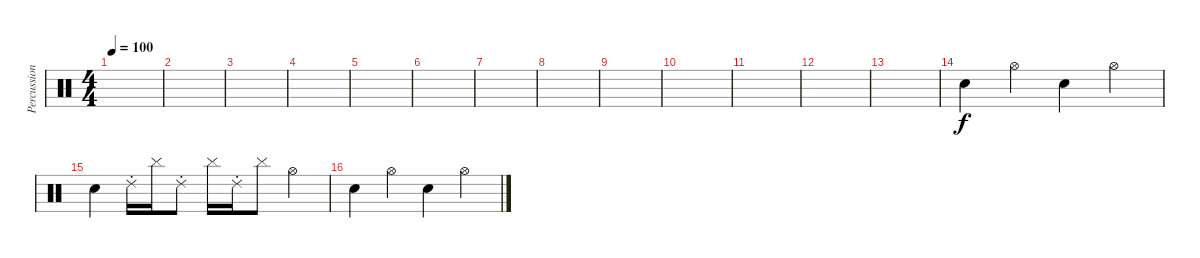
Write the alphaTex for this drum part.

\track ("Percussions" "Percussion") {instrument percussion}
\staff {score}
\articulation defaults
\ts (4 4)
\tempo 100
\clef neutral
\ks c
|
|
|
|
|
|
|
|
|
|
|
|
|
"Snare (hit) 2".4 "Hi-Hat (open)".4 "Snare (hit) 2".4 "Hi-Hat (open)".4 |
"Snare (hit) 2".4 "Ride (choke) 2".16 "Cymbal (hit)".16 "Ride (choke) 2".8 "Cymbal (hit)".16 "Ride (choke) 2".16 "Cymbal (hit)".8 "Hi-Hat (open)".4 |
"Snare (hit) 2".4 "Hi-Hat (open)".4 "Snare (hit) 2".4 "Hi-Hat (open)".4
